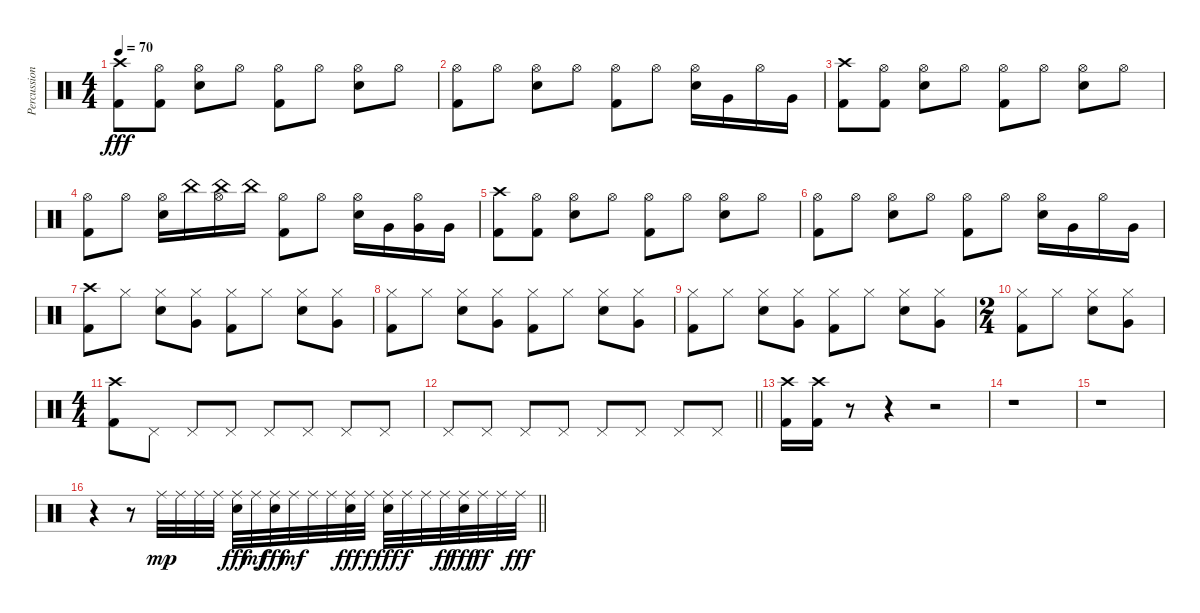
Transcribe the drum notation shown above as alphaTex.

\track ("Percussion" "Percussion") {instrument percussion}
\staff {score}
\articulation defaults
\ts (4 4)
\tempo 70
\clef neutral
\ks c
("Crash high (hit)" "Kick (hit) 2").8{dy fff} ("Hi-Hat (open)" "Kick (hit) 2").8 ("Hi-Hat (open)" "Snare (hit) 2").8 "Hi-Hat (open)".8 ("Hi-Hat (open)" "Kick (hit) 2").8 "Hi-Hat (open)".8 ("Hi-Hat (open)" "Snare (hit) 2").8 "Hi-Hat (open)".8 |
("Hi-Hat (open)" "Kick (hit) 2").8 "Hi-Hat (open)".8 ("Hi-Hat (open)" "Snare (hit) 2").8 "Hi-Hat (open)".8 ("Hi-Hat (open)" "Kick (hit) 2").8 "Hi-Hat (open)".8 ("Hi-Hat (open)" "Snare (hit) 2").16 "Very Low Tom (hit)".16 "Hi-Hat (open)".16 "Very Low Tom (hit)".16 |
("Crash high (hit)" "Kick (hit) 2").8 ("Hi-Hat (open)" "Kick (hit) 2").8 ("Hi-Hat (open)" "Snare (hit) 2").8 "Hi-Hat (open)".8 ("Hi-Hat (open)" "Kick (hit) 2").8 "Hi-Hat (open)".8 ("Hi-Hat (open)" "Snare (hit) 2").8 "Hi-Hat (open)".8 |
("Hi-Hat (open)" "Kick (hit) 2").8 "Hi-Hat (open)".8 ("Hi-Hat (open)" "Snare (hit) 2").16 "China (hit)".16 ("Hi-Hat (open)" "China (hit)").16 "China (hit)".16 ("Hi-Hat (open)" "Kick (hit) 2").8 "Hi-Hat (open)".8 ("Hi-Hat (open)" "Snare (hit) 2").16 "Very Low Tom (hit)".16 ("Hi-Hat (open)" "Very Low Tom (hit)").16 "Very Low Tom (hit)".16 |
("Crash high (hit)" "Kick (hit) 2").8 ("Hi-Hat (open)" "Kick (hit) 2").8 ("Hi-Hat (open)" "Snare (hit) 2").8 "Hi-Hat (open)".8 ("Hi-Hat (open)" "Kick (hit) 2").8 "Hi-Hat (open)".8 ("Hi-Hat (open)" "Snare (hit) 2").8 "Hi-Hat (open)".8 |
("Hi-Hat (open)" "Kick (hit) 2").8 "Hi-Hat (open)".8 ("Hi-Hat (open)" "Snare (hit) 2").8 "Hi-Hat (open)".8 ("Hi-Hat (open)" "Kick (hit) 2").8 "Hi-Hat (open)".8 ("Hi-Hat (open)" "Snare (hit) 2").16 "Very Low Tom (hit)".16 "Hi-Hat (open)".16 "Very Low Tom (hit)".16 |
("Crash high (hit)" "Kick (hit) 2").8 "Hi-Hat (closed)".8 ("Hi-Hat (closed)" "Snare (hit) 2").8 ("Hi-Hat (closed)" "Very Low Tom (hit)").8 ("Hi-Hat (closed)" "Kick (hit) 2").8 "Hi-Hat (closed)".8 ("Hi-Hat (closed)" "Snare (hit) 2").8 ("Hi-Hat (closed)" "Very Low Tom (hit)").8 |
("Hi-Hat (closed)" "Kick (hit) 2").8 "Hi-Hat (closed)".8 ("Hi-Hat (closed)" "Snare (hit) 2").8 ("Hi-Hat (closed)" "Very Low Tom (hit)").8 ("Hi-Hat (closed)" "Kick (hit) 2").8 "Hi-Hat (closed)".8 ("Hi-Hat (closed)" "Snare (hit) 2").8 ("Hi-Hat (closed)" "Very Low Tom (hit)").8 |
("Hi-Hat (closed)" "Kick (hit) 2").8 "Hi-Hat (closed)".8 ("Hi-Hat (closed)" "Snare (hit) 2").8 ("Hi-Hat (closed)" "Very Low Tom (hit)").8 ("Hi-Hat (closed)" "Kick (hit) 2").8 "Hi-Hat (closed)".8 ("Hi-Hat (closed)" "Snare (hit) 2").8 ("Hi-Hat (closed)" "Very Low Tom (hit)").8 |
\ts (2 4)
("Hi-Hat (closed)" "Kick (hit) 2").8 "Hi-Hat (closed)".8 ("Hi-Hat (closed)" "Snare (hit) 2").8 ("Hi-Hat (closed)" "Very Low Tom (hit)").8 |
\ts (4 4)
("Crash high (hit)" "Kick (hit) 2").8 "Pedal Hi-Hat (hit)".8 "Pedal Hi-Hat (hit)".8 "Pedal Hi-Hat (hit)".8 "Pedal Hi-Hat (hit)".8 "Pedal Hi-Hat (hit)".8 "Pedal Hi-Hat (hit)".8 "Pedal Hi-Hat (hit)".8 |
\barLineRight lightlight "Pedal Hi-Hat (hit)".8 "Pedal Hi-Hat (hit)".8 "Pedal Hi-Hat (hit)".8 "Pedal Hi-Hat (hit)".8 "Pedal Hi-Hat (hit)".8 "Pedal Hi-Hat (hit)".8 "Pedal Hi-Hat (hit)".8 "Pedal Hi-Hat (hit)".8
|
("Crash high (hit)" "Kick (hit) 2").16 ("Crash high (hit)" "Kick (hit) 2").16 r.8 r.4 r.2 |
r.1 |
r.1 |
\barLineRight lightlight
r.4 r.8 "Ride (middle)".32{dy mp} "Ride (middle)".32 "Ride (middle)".32 "Ride (middle)".32 ("Ride (middle)" "Snare (hit) 2").32{dy fff} "Ride (middle)".32{dy mf} ("Ride (middle)" "Snare (hit) 2").32{dy fff} "Ride (middle)".32{dy mf} "Ride (middle)".32 "Ride (middle)".32 ("Ride (middle)" "Snare (hit) 2").32{dy fff} "Ride (middle)".32{dy f} ("Ride (middle)" "Snare (hit) 2").32{dy fff} "Ride (middle)".32{dy f} "Ride (middle)".32 "Ride (middle)".32{dy ff} ("Ride (middle)" "Snare (hit) 2").32{dy fff} "Ride (middle)".32{dy ff} "Ride (middle)".32 "Ride (middle)".32{dy fff}
